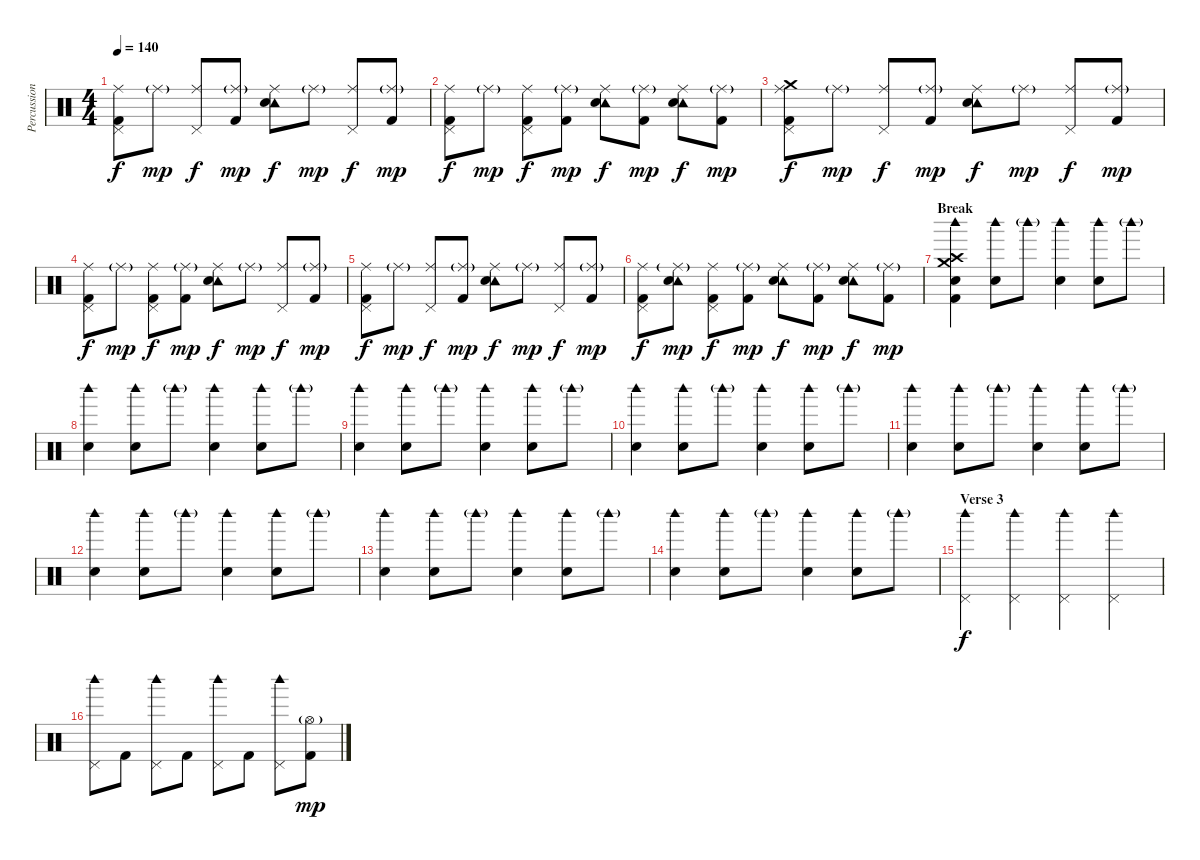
\track ("Percussion" "Percussion") {instrument percussion}
\staff {score}
\articulation defaults
\ts (4 4)
\tempo 140
\clef neutral
\ks c
("Ride (middle)" "Pedal Hi-Hat (hit)" "Kick (hit) 2").8{dy f} "Ride (middle)"{g}.8{dy mp} ("Ride (middle)" "Pedal Hi-Hat (hit)").8{dy f} ("Ride (middle)"{g} "Kick (hit) 2").8{dy mp} ("Ride (middle)" "Tambourine (hit)" "Electric Snare (hit)").8{dy f} "Ride (middle)"{g}.8{dy mp} ("Ride (middle)" "Pedal Hi-Hat (hit)").8{dy f} ("Ride (middle)"{g} "Kick (hit) 2").8{dy mp} |
("Ride (middle)" "Pedal Hi-Hat (hit)" "Kick (hit) 2").8{dy f} "Ride (middle)"{g}.8{dy mp} ("Ride (middle)" "Pedal Hi-Hat (hit)" "Kick (hit) 2").8{dy f} ("Ride (middle)"{g} "Kick (hit) 2").8{dy mp} ("Ride (middle)" "Tambourine (hit)" "Electric Snare (hit)").8{dy f} ("Ride (middle)"{g} "Kick (hit) 2").8{dy mp} ("Ride (middle)" "Tambourine (hit)" "Electric Snare (hit)").8{dy f} ("Ride (middle)"{g} "Kick (hit) 2").8{dy mp} |
("Ride (middle)" "Pedal Hi-Hat (hit)" "Crash medium (hit)" "Kick (hit) 2").8{dy f} "Ride (middle)"{g}.8{dy mp} ("Ride (middle)" "Pedal Hi-Hat (hit)").8{dy f} ("Ride (middle)"{g} "Kick (hit) 2").8{dy mp} ("Ride (middle)" "Tambourine (hit)" "Electric Snare (hit)").8{dy f} "Ride (middle)"{g}.8{dy mp} ("Ride (middle)" "Pedal Hi-Hat (hit)").8{dy f} ("Ride (middle)"{g} "Kick (hit) 2").8{dy mp} |
("Ride (middle)" "Pedal Hi-Hat (hit)" "Kick (hit) 2").8{dy f} "Ride (middle)"{g}.8{dy mp} ("Ride (middle)" "Pedal Hi-Hat (hit)" "Kick (hit) 2").8{dy f} ("Ride (middle)"{g} "Kick (hit) 2").8{dy mp} ("Ride (middle)" "Tambourine (hit)" "Electric Snare (hit)").8{dy f} "Ride (middle)"{g}.8{dy mp} ("Ride (middle)" "Pedal Hi-Hat (hit)").8{dy f} ("Ride (middle)"{g} "Kick (hit) 2").8{dy mp} |
("Ride (middle)" "Pedal Hi-Hat (hit)" "Kick (hit) 2").8{dy f} "Ride (middle)"{g}.8{dy mp} ("Ride (middle)" "Pedal Hi-Hat (hit)").8{dy f} ("Ride (middle)"{g} "Kick (hit) 2").8{dy mp} ("Ride (middle)" "Tambourine (hit)" "Electric Snare (hit)").8{dy f} "Ride (middle)"{g}.8{dy mp} ("Ride (middle)" "Pedal Hi-Hat (hit)").8{dy f} ("Ride (middle)"{g} "Kick (hit) 2").8{dy mp} |
("Ride (middle)" "Pedal Hi-Hat (hit)" "Kick (hit) 2").8{dy f} ("Ride (middle)"{g} "Tambourine (hit)" "Electric Snare (hit)").8{dy mp} ("Ride (middle)" "Pedal Hi-Hat (hit)" "Kick (hit) 2").8{dy f} ("Ride (middle)"{g} "Kick (hit) 2").8{dy mp} ("Ride (middle)" "Tambourine (hit)" "Electric Snare (hit)").8{dy f} ("Ride (middle)"{g} "Kick (hit) 2").8{dy mp} ("Ride (middle)" "Tambourine (hit)" "Electric Snare (hit)").8{dy f} ("Ride (middle)"{g} "Kick (hit) 2").8{dy mp} |
\section ("" "Break")
("Woodblock high (hit)" "Electric Snare (hit)" "Crash medium (hit)" "Crash high (hit)" "Kick (hit) 2").4 ("Woodblock high (hit)" "Electric Snare (hit)").8 "Woodblock high (hit)"{g}.8 ("Woodblock high (hit)" "Electric Snare (hit)").4 ("Woodblock high (hit)" "Electric Snare (hit)").8 "Woodblock high (hit)"{g}.8 |
("Woodblock high (hit)" "Electric Snare (hit)").4 ("Woodblock high (hit)" "Electric Snare (hit)").8 "Woodblock high (hit)"{g}.8 ("Woodblock high (hit)" "Electric Snare (hit)").4 ("Woodblock high (hit)" "Electric Snare (hit)").8 "Woodblock high (hit)"{g}.8 |
("Woodblock high (hit)" "Electric Snare (hit)").4 ("Woodblock high (hit)" "Electric Snare (hit)").8 "Woodblock high (hit)"{g}.8 ("Woodblock high (hit)" "Electric Snare (hit)").4 ("Woodblock high (hit)" "Electric Snare (hit)").8 "Woodblock high (hit)"{g}.8 |
("Woodblock high (hit)" "Electric Snare (hit)").4 ("Woodblock high (hit)" "Electric Snare (hit)").8 "Woodblock high (hit)"{g}.8 ("Woodblock high (hit)" "Electric Snare (hit)").4 ("Woodblock high (hit)" "Electric Snare (hit)").8 "Woodblock high (hit)"{g}.8 |
("Woodblock high (hit)" "Electric Snare (hit)").4 ("Woodblock high (hit)" "Electric Snare (hit)").8 "Woodblock high (hit)"{g}.8 ("Woodblock high (hit)" "Electric Snare (hit)").4 ("Woodblock high (hit)" "Electric Snare (hit)").8 "Woodblock high (hit)"{g}.8 |
("Woodblock high (hit)" "Electric Snare (hit)").4 ("Woodblock high (hit)" "Electric Snare (hit)").8 "Woodblock high (hit)"{g}.8 ("Woodblock high (hit)" "Electric Snare (hit)").4 ("Woodblock high (hit)" "Electric Snare (hit)").8 "Woodblock high (hit)"{g}.8 |
("Woodblock high (hit)" "Electric Snare (hit)").4 ("Woodblock high (hit)" "Electric Snare (hit)").8 "Woodblock high (hit)"{g}.8 ("Woodblock high (hit)" "Electric Snare (hit)").4 ("Woodblock high (hit)" "Electric Snare (hit)").8 "Woodblock high (hit)"{g}.8 |
("Woodblock high (hit)" "Electric Snare (hit)").4 ("Woodblock high (hit)" "Electric Snare (hit)").8 "Woodblock high (hit)"{g}.8 ("Woodblock high (hit)" "Electric Snare (hit)").4 ("Woodblock high (hit)" "Electric Snare (hit)").8 "Woodblock high (hit)"{g}.8 |
\section ("" "Verse 3")
("Pedal Hi-Hat (hit)" "Woodblock high (hit)").4{dy f} ("Pedal Hi-Hat (hit)" "Woodblock high (hit)").4 ("Pedal Hi-Hat (hit)" "Woodblock high (hit)").4 ("Pedal Hi-Hat (hit)" "Woodblock high (hit)").4 |
("Pedal Hi-Hat (hit)" "Woodblock high (hit)").8 "Kick (hit) 2".8 ("Pedal Hi-Hat (hit)" "Woodblock high (hit)").8 "Kick (hit) 2".8 ("Pedal Hi-Hat (hit)" "Woodblock high (hit)").8 "Kick (hit) 2".8 ("Pedal Hi-Hat (hit)" "Woodblock high (hit)").8 ("Hi-Hat (open)"{g} "Kick (hit) 2").8{dy mp}
